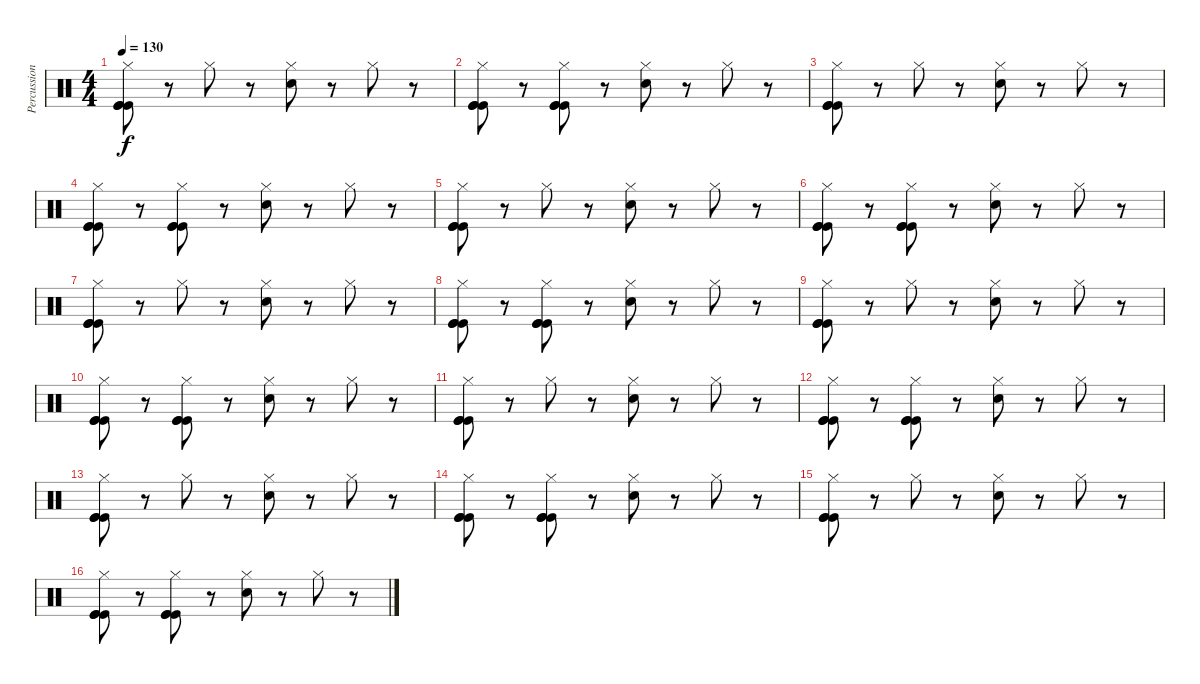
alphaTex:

\track ("Percussion" "Percussion") {instrument percussion}
\staff {score}
\articulation defaults
\ts (4 4)
\tempo 130
\clef neutral
\ks c
("Hi-Hat (closed)" "Kick (hit)" "Kick (hit)" "Kick (hit)").8{dy f} r.8 "Hi-Hat (closed)".8 r.8 ("Hi-Hat (closed)" "Electric Snare (hit)").8 r.8 "Hi-Hat (closed)".8 r.8 |
("Hi-Hat (closed)" "Kick (hit)" "Kick (hit)" "Kick (hit)").8 r.8 ("Hi-Hat (closed)" "Kick (hit)" "Kick (hit)" "Kick (hit)").8 r.8 ("Hi-Hat (closed)" "Electric Snare (hit)").8 r.8 "Hi-Hat (closed)".8 r.8 |
("Hi-Hat (closed)" "Kick (hit)" "Kick (hit)" "Kick (hit)").8 r.8 "Hi-Hat (closed)".8 r.8 ("Hi-Hat (closed)" "Electric Snare (hit)").8 r.8 "Hi-Hat (closed)".8 r.8 |
("Hi-Hat (closed)" "Kick (hit)" "Kick (hit)" "Kick (hit)").8 r.8 ("Hi-Hat (closed)" "Kick (hit)" "Kick (hit)" "Kick (hit)").8 r.8 ("Hi-Hat (closed)" "Electric Snare (hit)").8 r.8 "Hi-Hat (closed)".8 r.8 |
("Hi-Hat (closed)" "Kick (hit)" "Kick (hit)" "Kick (hit)").8 r.8 "Hi-Hat (closed)".8 r.8 ("Hi-Hat (closed)" "Electric Snare (hit)").8 r.8 "Hi-Hat (closed)".8 r.8 |
("Hi-Hat (closed)" "Kick (hit)" "Kick (hit)" "Kick (hit)").8 r.8 ("Hi-Hat (closed)" "Kick (hit)" "Kick (hit)" "Kick (hit)").8 r.8 ("Hi-Hat (closed)" "Electric Snare (hit)").8 r.8 "Hi-Hat (closed)".8 r.8 |
("Hi-Hat (closed)" "Kick (hit)" "Kick (hit)" "Kick (hit)").8 r.8 "Hi-Hat (closed)".8 r.8 ("Hi-Hat (closed)" "Electric Snare (hit)").8 r.8 "Hi-Hat (closed)".8 r.8 |
("Hi-Hat (closed)" "Kick (hit)" "Kick (hit)" "Kick (hit)").8 r.8 ("Hi-Hat (closed)" "Kick (hit)" "Kick (hit)" "Kick (hit)").8 r.8 ("Hi-Hat (closed)" "Electric Snare (hit)").8 r.8 "Hi-Hat (closed)".8 r.8 |
("Hi-Hat (closed)" "Kick (hit)" "Kick (hit)" "Kick (hit)").8 r.8 "Hi-Hat (closed)".8 r.8 ("Hi-Hat (closed)" "Electric Snare (hit)").8 r.8 "Hi-Hat (closed)".8 r.8 |
("Hi-Hat (closed)" "Kick (hit)" "Kick (hit)" "Kick (hit)").8 r.8 ("Hi-Hat (closed)" "Kick (hit)" "Kick (hit)" "Kick (hit)").8 r.8 ("Hi-Hat (closed)" "Electric Snare (hit)").8 r.8 "Hi-Hat (closed)".8 r.8 |
("Hi-Hat (closed)" "Kick (hit)" "Kick (hit)" "Kick (hit)").8 r.8 "Hi-Hat (closed)".8 r.8 ("Hi-Hat (closed)" "Electric Snare (hit)").8 r.8 "Hi-Hat (closed)".8 r.8 |
("Hi-Hat (closed)" "Kick (hit)" "Kick (hit)" "Kick (hit)").8 r.8 ("Hi-Hat (closed)" "Kick (hit)" "Kick (hit)" "Kick (hit)").8 r.8 ("Hi-Hat (closed)" "Electric Snare (hit)").8 r.8 "Hi-Hat (closed)".8 r.8 |
("Hi-Hat (closed)" "Kick (hit)" "Kick (hit)" "Kick (hit)").8 r.8 "Hi-Hat (closed)".8 r.8 ("Hi-Hat (closed)" "Electric Snare (hit)").8 r.8 "Hi-Hat (closed)".8 r.8 |
("Hi-Hat (closed)" "Kick (hit)" "Kick (hit)" "Kick (hit)").8 r.8 ("Hi-Hat (closed)" "Kick (hit)" "Kick (hit)" "Kick (hit)").8 r.8 ("Hi-Hat (closed)" "Electric Snare (hit)").8 r.8 "Hi-Hat (closed)".8 r.8 |
("Hi-Hat (closed)" "Kick (hit)" "Kick (hit)" "Kick (hit)").8 r.8 "Hi-Hat (closed)".8 r.8 ("Hi-Hat (closed)" "Electric Snare (hit)").8 r.8 "Hi-Hat (closed)".8 r.8 |
("Hi-Hat (closed)" "Kick (hit)" "Kick (hit)" "Kick (hit)").8 r.8 ("Hi-Hat (closed)" "Kick (hit)" "Kick (hit)" "Kick (hit)").8 r.8 ("Hi-Hat (closed)" "Electric Snare (hit)").8 r.8 "Hi-Hat (closed)".8 r.8
